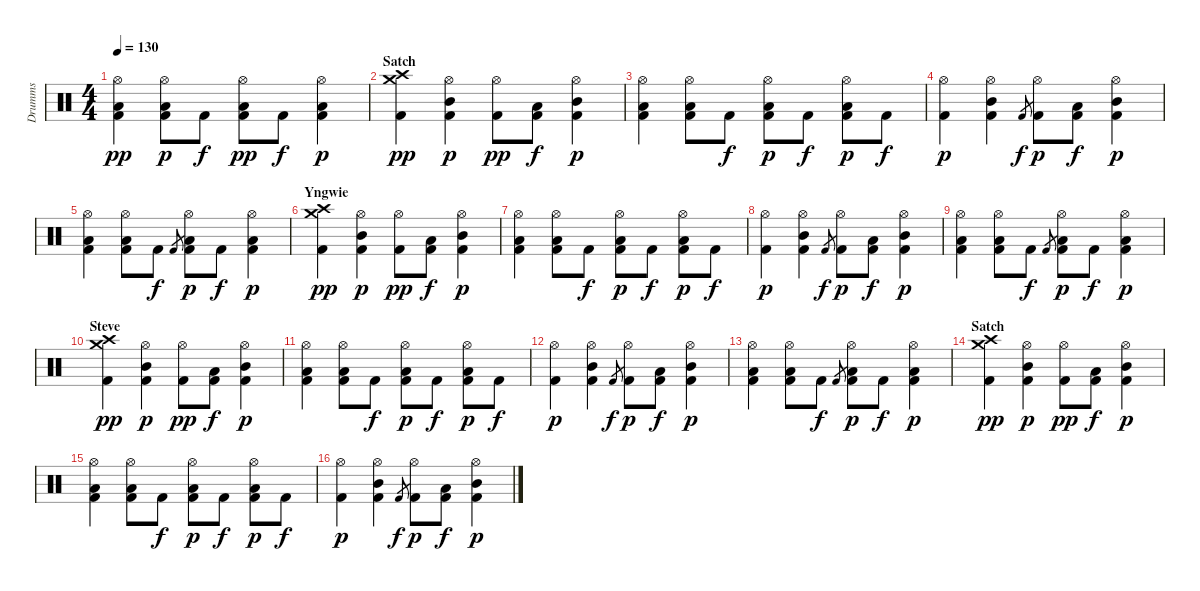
\track ("Drumms" "Drumms") {instrument percussion}
\staff {score}
\articulation defaults
\ts (4 4)
\tempo 130
\clef neutral
\ks c
("Hi-Hat (open)" "Kick (hit) 2" "Low Tom (hit)").4{dy pp} ("Hi-Hat (open)" "Kick (hit) 2" "Low Tom (hit)").8{dy p} "Kick (hit) 2".8{dy f} ("Hi-Hat (open)" "Kick (hit) 2" "Low Tom (hit)").8{dy pp} "Kick (hit) 2".8{dy f} ("Hi-Hat (open)" "Kick (hit) 2" "Low Tom (hit)").4{dy p} |
\section ("" "Satch")
("Crash medium (hit)" "Crash high (hit)" "Kick (hit) 2").4{dy pp} ("Hi-Hat (open)" "Kick (hit) 2" "Mid Tom (hit)").4{dy p} ("Hi-Hat (open)" "Kick (hit) 2").8{dy pp} ("Kick (hit) 2" "Low Tom (hit)").8{dy f} ("Hi-Hat (open)" "Kick (hit) 2" "Mid Tom (hit)").4{dy p} |
("Hi-Hat (open)" "Kick (hit) 2" "Low Tom (hit)").4 ("Hi-Hat (open)" "Kick (hit) 2" "Low Tom (hit)").8 "Kick (hit) 2".8{dy f} ("Hi-Hat (open)" "Kick (hit) 2" "Low Tom (hit)").8{dy p} "Kick (hit) 2".8{dy f} ("Hi-Hat (open)" "Kick (hit) 2" "Low Tom (hit)").8{dy p} "Kick (hit) 2".8{dy f} |
("Hi-Hat (open)" "Kick (hit) 2").4{dy p} ("Hi-Hat (open)" "Kick (hit) 2" "Mid Tom (hit)").4 "Kick (hit) 2".8{gr dy f} ("Hi-Hat (open)" "Kick (hit) 2").8{dy p} ("Kick (hit) 2" "Low Tom (hit)").8{dy f} ("Hi-Hat (open)" "Kick (hit) 2" "Mid Tom (hit)").4{dy p} |
("Hi-Hat (open)" "Kick (hit) 2" "Low Tom (hit)").4 ("Hi-Hat (open)" "Kick (hit) 2" "Low Tom (hit)").8 "Kick (hit) 2".8{dy f} "Kick (hit) 2".8{gr} ("Hi-Hat (open)" "Kick (hit) 2" "Low Tom (hit)").8{dy p} "Kick (hit) 2".8{dy f} ("Hi-Hat (open)" "Kick (hit) 2" "Low Tom (hit)").4{dy p} |
\section ("" "Yngwie")
("Crash medium (hit)" "Crash high (hit)" "Kick (hit) 2").4{dy pp} ("Hi-Hat (open)" "Kick (hit) 2" "Mid Tom (hit)").4{dy p} ("Hi-Hat (open)" "Kick (hit) 2").8{dy pp} ("Kick (hit) 2" "Low Tom (hit)").8{dy f} ("Hi-Hat (open)" "Kick (hit) 2" "Mid Tom (hit)").4{dy p} |
("Hi-Hat (open)" "Kick (hit) 2" "Low Tom (hit)").4 ("Hi-Hat (open)" "Kick (hit) 2" "Low Tom (hit)").8 "Kick (hit) 2".8{dy f} ("Hi-Hat (open)" "Kick (hit) 2" "Low Tom (hit)").8{dy p} "Kick (hit) 2".8{dy f} ("Hi-Hat (open)" "Kick (hit) 2" "Low Tom (hit)").8{dy p} "Kick (hit) 2".8{dy f} |
("Hi-Hat (open)" "Kick (hit) 2").4{dy p} ("Hi-Hat (open)" "Kick (hit) 2" "Mid Tom (hit)").4 "Kick (hit) 2".8{gr dy f} ("Hi-Hat (open)" "Kick (hit) 2").8{dy p} ("Kick (hit) 2" "Low Tom (hit)").8{dy f} ("Hi-Hat (open)" "Kick (hit) 2" "Mid Tom (hit)").4{dy p} |
("Hi-Hat (open)" "Kick (hit) 2" "Low Tom (hit)").4 ("Hi-Hat (open)" "Kick (hit) 2" "Low Tom (hit)").8 "Kick (hit) 2".8{dy f} "Kick (hit) 2".8{gr} ("Hi-Hat (open)" "Kick (hit) 2" "Low Tom (hit)").8{dy p} "Kick (hit) 2".8{dy f} ("Hi-Hat (open)" "Kick (hit) 2" "Low Tom (hit)").4{dy p} |
\section ("" "Steve")
("Crash medium (hit)" "Crash high (hit)" "Kick (hit) 2").4{dy pp} ("Hi-Hat (open)" "Kick (hit) 2" "Mid Tom (hit)").4{dy p} ("Hi-Hat (open)" "Kick (hit) 2").8{dy pp} ("Kick (hit) 2" "Low Tom (hit)").8{dy f} ("Hi-Hat (open)" "Kick (hit) 2" "Mid Tom (hit)").4{dy p} |
("Hi-Hat (open)" "Kick (hit) 2" "Low Tom (hit)").4 ("Hi-Hat (open)" "Kick (hit) 2" "Low Tom (hit)").8 "Kick (hit) 2".8{dy f} ("Hi-Hat (open)" "Kick (hit) 2" "Low Tom (hit)").8{dy p} "Kick (hit) 2".8{dy f} ("Hi-Hat (open)" "Kick (hit) 2" "Low Tom (hit)").8{dy p} "Kick (hit) 2".8{dy f} |
("Hi-Hat (open)" "Kick (hit) 2").4{dy p} ("Hi-Hat (open)" "Kick (hit) 2" "Mid Tom (hit)").4 "Kick (hit) 2".8{gr dy f} ("Hi-Hat (open)" "Kick (hit) 2").8{dy p} ("Kick (hit) 2" "Low Tom (hit)").8{dy f} ("Hi-Hat (open)" "Kick (hit) 2" "Mid Tom (hit)").4{dy p} |
("Hi-Hat (open)" "Kick (hit) 2" "Low Tom (hit)").4 ("Hi-Hat (open)" "Kick (hit) 2" "Low Tom (hit)").8 "Kick (hit) 2".8{dy f} "Kick (hit) 2".8{gr} ("Hi-Hat (open)" "Kick (hit) 2" "Low Tom (hit)").8{dy p} "Kick (hit) 2".8{dy f} ("Hi-Hat (open)" "Kick (hit) 2" "Low Tom (hit)").4{dy p} |
\section ("" "Satch")
("Crash medium (hit)" "Crash high (hit)" "Kick (hit) 2").4{dy pp} ("Hi-Hat (open)" "Kick (hit) 2" "Mid Tom (hit)").4{dy p} ("Hi-Hat (open)" "Kick (hit) 2").8{dy pp} ("Kick (hit) 2" "Low Tom (hit)").8{dy f} ("Hi-Hat (open)" "Kick (hit) 2" "Mid Tom (hit)").4{dy p} |
("Hi-Hat (open)" "Kick (hit) 2" "Low Tom (hit)").4 ("Hi-Hat (open)" "Kick (hit) 2" "Low Tom (hit)").8 "Kick (hit) 2".8{dy f} ("Hi-Hat (open)" "Kick (hit) 2" "Low Tom (hit)").8{dy p} "Kick (hit) 2".8{dy f} ("Hi-Hat (open)" "Kick (hit) 2" "Low Tom (hit)").8{dy p} "Kick (hit) 2".8{dy f} |
("Hi-Hat (open)" "Kick (hit) 2").4{dy p} ("Hi-Hat (open)" "Kick (hit) 2" "Mid Tom (hit)").4 "Kick (hit) 2".8{gr dy f} ("Hi-Hat (open)" "Kick (hit) 2").8{dy p} ("Kick (hit) 2" "Low Tom (hit)").8{dy f} ("Hi-Hat (open)" "Kick (hit) 2" "Mid Tom (hit)").4{dy p}
